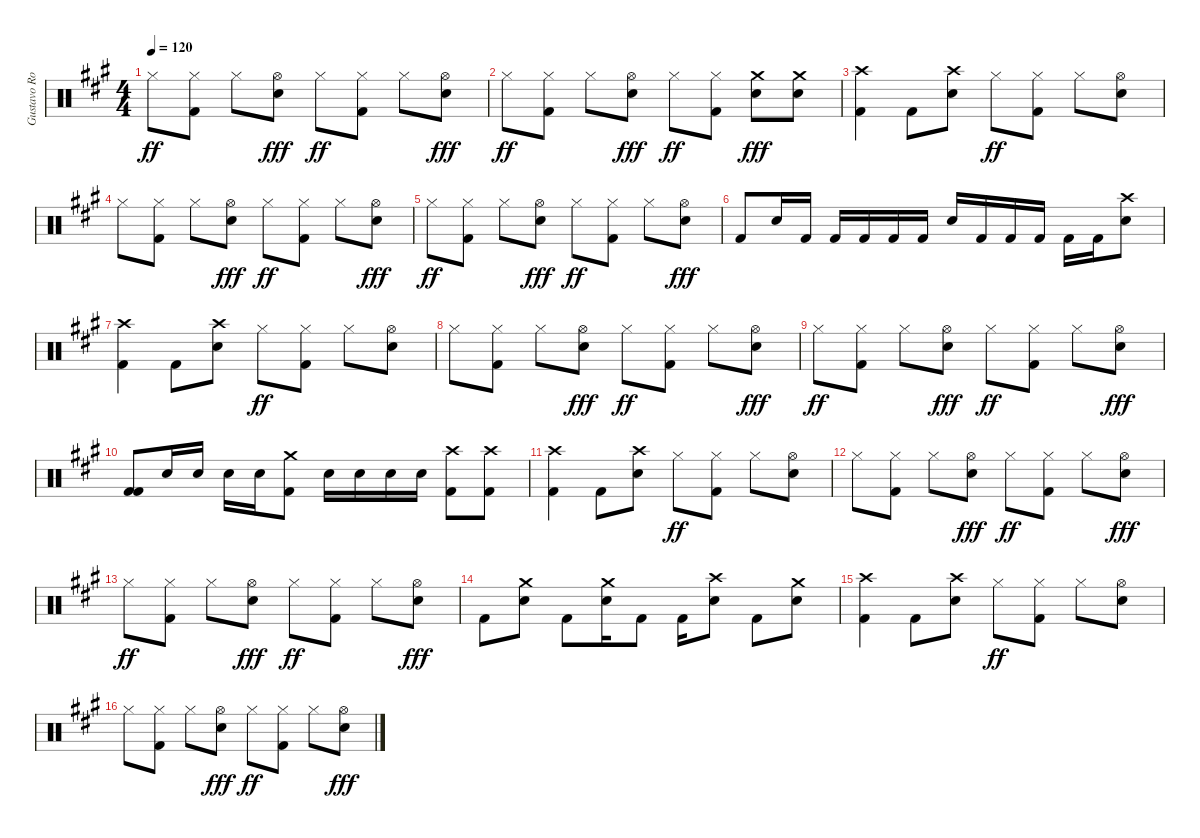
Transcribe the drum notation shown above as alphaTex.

\track ("Gustavo Rowek" "Gustavo Ro") {instrument percussion}
\staff {score}
\articulation defaults
\ts (4 4)
\tempo 120
\clef neutral
\ks a "Hi-Hat (closed)".8{dy ff}
("Hi-Hat (closed)" "Kick (hit) 2").8 "Hi-Hat (closed)".8 ("Hi-Hat (open)" "Snare (hit) 2").8{dy fff} "Hi-Hat (closed)".8{dy ff} ("Hi-Hat (closed)" "Kick (hit) 2").8 "Hi-Hat (closed)".8 ("Hi-Hat (open)" "Snare (hit) 2").8{dy fff} |
"Hi-Hat (closed)".8{dy ff} ("Hi-Hat (closed)" "Kick (hit) 2").8 "Hi-Hat (closed)".8 ("Hi-Hat (open)" "Snare (hit) 2").8{dy fff} "Hi-Hat (closed)".8{dy ff} ("Hi-Hat (closed)" "Kick (hit) 2").8 ("Crash medium (hit)" "Snare (hit) 2").8{dy fff} ("Crash medium (hit)" "Snare (hit) 2").8 |
("Crash high (hit)" "Kick (hit) 2").4 "Kick (hit) 2".8 ("Crash high (hit)" "Snare (hit) 2").8 "Hi-Hat (closed)".8{dy ff} ("Hi-Hat (closed)" "Kick (hit) 2").8 "Hi-Hat (closed)".8 ("Hi-Hat (open)" "Snare (hit) 2").8 |
"Hi-Hat (closed)".8 ("Hi-Hat (closed)" "Kick (hit) 2").8 "Hi-Hat (closed)".8 ("Hi-Hat (open)" "Snare (hit) 2").8{dy fff} "Hi-Hat (closed)".8{dy ff} ("Hi-Hat (closed)" "Kick (hit) 2").8 "Hi-Hat (closed)".8 ("Hi-Hat (open)" "Snare (hit) 2").8{dy fff} |
"Hi-Hat (closed)".8{dy ff} ("Hi-Hat (closed)" "Kick (hit) 2").8 "Hi-Hat (closed)".8 ("Hi-Hat (open)" "Snare (hit) 2").8{dy fff} "Hi-Hat (closed)".8{dy ff} ("Hi-Hat (closed)" "Kick (hit) 2").8 "Hi-Hat (closed)".8 ("Hi-Hat (open)" "Snare (hit) 2").8{dy fff} |
"Kick (hit) 2".8 "Snare (hit) 2".16 "Kick (hit) 2".16 "Kick (hit) 2".16 "Kick (hit) 2".16 "Kick (hit) 2".16 "Kick (hit) 2".16 "Snare (hit) 2".16 "Kick (hit) 2".16 "Kick (hit) 2".16 "Kick (hit) 2".16 "Kick (hit) 2".16 "Kick (hit) 2".16 ("Crash high (hit)" "Snare (hit) 2").8 |
("Crash high (hit)" "Kick (hit) 2").4 "Kick (hit) 2".8 ("Crash high (hit)" "Snare (hit) 2").8 "Hi-Hat (closed)".8{dy ff} ("Hi-Hat (closed)" "Kick (hit) 2").8 "Hi-Hat (closed)".8 ("Hi-Hat (open)" "Snare (hit) 2").8 |
"Hi-Hat (closed)".8 ("Hi-Hat (closed)" "Kick (hit) 2").8 "Hi-Hat (closed)".8 ("Hi-Hat (open)" "Snare (hit) 2").8{dy fff} "Hi-Hat (closed)".8{dy ff} ("Hi-Hat (closed)" "Kick (hit) 2").8 "Hi-Hat (closed)".8 ("Hi-Hat (open)" "Snare (hit) 2").8{dy fff} |
"Hi-Hat (closed)".8{dy ff} ("Hi-Hat (closed)" "Kick (hit) 2").8 "Hi-Hat (closed)".8 ("Hi-Hat (open)" "Snare (hit) 2").8{dy fff} "Hi-Hat (closed)".8{dy ff} ("Hi-Hat (closed)" "Kick (hit) 2").8 "Hi-Hat (closed)".8 ("Hi-Hat (open)" "Snare (hit) 2").8{dy fff} |
("Kick (hit) 2" "Kick (hit) 2").8 "Snare (hit) 2".16 "Snare (hit) 2".16 "Snare (hit) 2".16 "Snare (hit) 2".16 ("Crash medium (hit)" "Kick (hit) 2").8 "Snare (hit) 2".16 "Snare (hit) 2".16 "Snare (hit) 2".16 "Snare (hit) 2".16 ("Crash high (hit)" "Kick (hit) 2").8 ("Crash high (hit)" "Kick (hit) 2").8 |
("Crash high (hit)" "Kick (hit) 2").4 "Kick (hit) 2".8 ("Crash high (hit)" "Snare (hit) 2").8 "Hi-Hat (closed)".8{dy ff} ("Hi-Hat (closed)" "Kick (hit) 2").8 "Hi-Hat (closed)".8 ("Hi-Hat (open)" "Snare (hit) 2").8 |
"Hi-Hat (closed)".8 ("Hi-Hat (closed)" "Kick (hit) 2").8 "Hi-Hat (closed)".8 ("Hi-Hat (open)" "Snare (hit) 2").8{dy fff} "Hi-Hat (closed)".8{dy ff} ("Hi-Hat (closed)" "Kick (hit) 2").8 "Hi-Hat (closed)".8 ("Hi-Hat (open)" "Snare (hit) 2").8{dy fff} |
"Hi-Hat (closed)".8{dy ff} ("Hi-Hat (closed)" "Kick (hit) 2").8 "Hi-Hat (closed)".8 ("Hi-Hat (open)" "Snare (hit) 2").8{dy fff} "Hi-Hat (closed)".8{dy ff} ("Hi-Hat (closed)" "Kick (hit) 2").8 "Hi-Hat (closed)".8 ("Hi-Hat (open)" "Snare (hit) 2").8{dy fff} |
"Kick (hit) 2".8 ("Crash medium (hit)" "Snare (hit) 2").8 "Kick (hit) 2".8 ("Crash medium (hit)" "Snare (hit) 2").16 "Kick (hit) 2".8 "Kick (hit) 2".16 ("Crash high (hit)" "Snare (hit) 2").8 "Kick (hit) 2".8 ("Crash medium (hit)" "Snare (hit) 2").8 |
("Crash high (hit)" "Kick (hit) 2").4 "Kick (hit) 2".8 ("Crash high (hit)" "Snare (hit) 2").8 "Hi-Hat (closed)".8{dy ff} ("Hi-Hat (closed)" "Kick (hit) 2").8 "Hi-Hat (closed)".8 ("Hi-Hat (open)" "Snare (hit) 2").8 |
"Hi-Hat (closed)".8 ("Hi-Hat (closed)" "Kick (hit) 2").8 "Hi-Hat (closed)".8 ("Hi-Hat (open)" "Snare (hit) 2").8{dy fff} "Hi-Hat (closed)".8{dy ff} ("Hi-Hat (closed)" "Kick (hit) 2").8 "Hi-Hat (closed)".8 ("Hi-Hat (open)" "Snare (hit) 2").8{dy fff}
